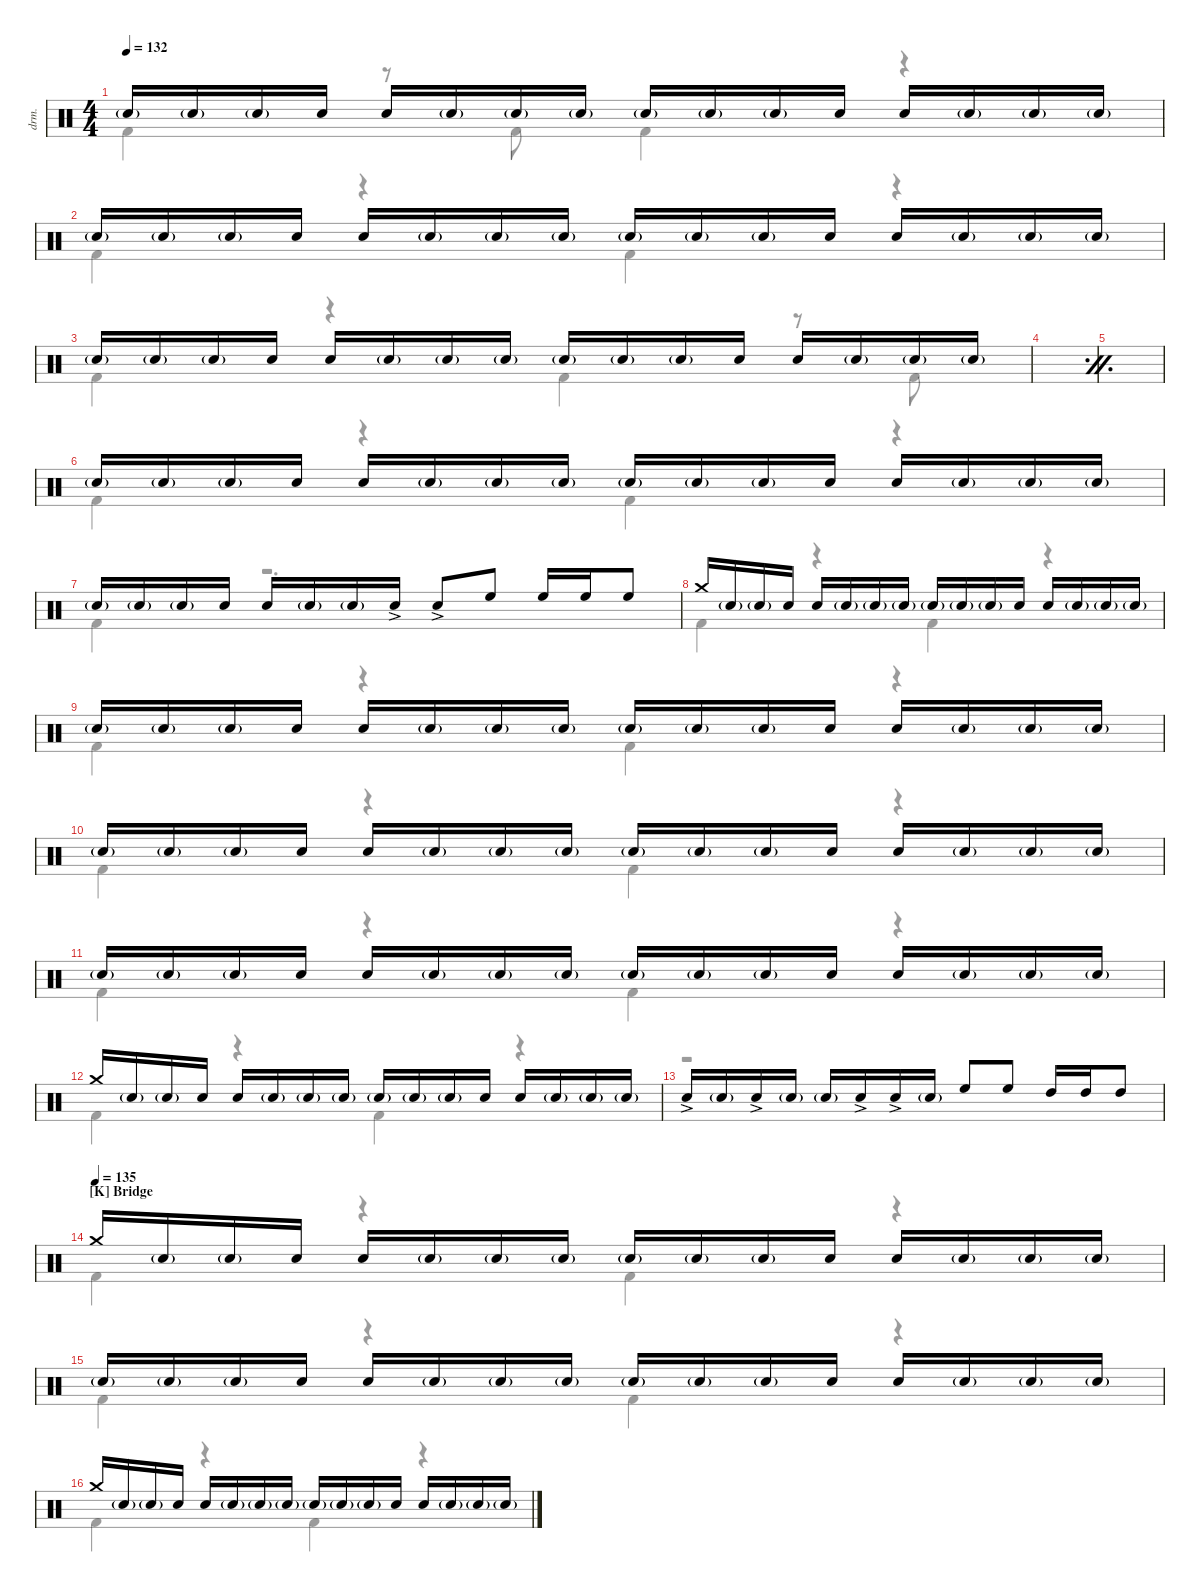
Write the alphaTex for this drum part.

\defaultSystemsLayout 4
\hideDynamics
\bracketExtendMode nobrackets
\track ("Drums" "drm.") {instrument percussion}
\staff {score}
\articulation defaults
\voice
\ts (4 4)
\tempo 132
\clef neutral
\ks c "Snare (hit) 2"{g}.16{dy mf} "Snare (hit) 2"{g}.16 "Snare (hit) 2"{g}.16 "Snare (hit) 2".16 "Snare (hit) 2".16 "Snare (hit) 2"{g}.16 "Snare (hit) 2"{g}.16 "Snare (hit) 2"{g}.16 "Snare (hit) 2"{g}.16 "Snare (hit) 2"{g}.16 "Snare (hit) 2"{g}.16 "Snare (hit) 2".16 "Snare (hit) 2".16 "Snare (hit) 2"{g}.16 "Snare (hit) 2"{g}.16 "Snare (hit) 2"{g}.16
|
"Snare (hit) 2"{g}.16 "Snare (hit) 2"{g}.16 "Snare (hit) 2"{g}.16 "Snare (hit) 2".16 "Snare (hit) 2".16 "Snare (hit) 2"{g}.16 "Snare (hit) 2"{g}.16 "Snare (hit) 2"{g}.16 "Snare (hit) 2"{g}.16 "Snare (hit) 2"{g}.16 "Snare (hit) 2"{g}.16 "Snare (hit) 2".16 "Snare (hit) 2".16 "Snare (hit) 2"{g}.16 "Snare (hit) 2"{g}.16 "Snare (hit) 2"{g}.16 |
"Snare (hit) 2"{g}.16 "Snare (hit) 2"{g}.16 "Snare (hit) 2"{g}.16 "Snare (hit) 2".16 "Snare (hit) 2".16 "Snare (hit) 2"{g}.16 "Snare (hit) 2"{g}.16 "Snare (hit) 2"{g}.16 "Snare (hit) 2"{g}.16 "Snare (hit) 2"{g}.16 "Snare (hit) 2"{g}.16 "Snare (hit) 2".16 "Snare (hit) 2".16 "Snare (hit) 2"{g}.16 "Snare (hit) 2"{g}.16 "Snare (hit) 2"{g}.16 |
\simile firstofdouble
|
\simile secondofdouble
|
\simile none "Snare (hit) 2"{g}.16 "Snare (hit) 2"{g}.16 "Snare (hit) 2"{g}.16 "Snare (hit) 2".16 "Snare (hit) 2".16 "Snare (hit) 2"{g}.16 "Snare (hit) 2"{g}.16 "Snare (hit) 2"{g}.16 "Snare (hit) 2"{g}.16 "Snare (hit) 2"{g}.16 "Snare (hit) 2"{g}.16 "Snare (hit) 2".16 "Snare (hit) 2".16 "Snare (hit) 2"{g}.16 "Snare (hit) 2"{g}.16 "Snare (hit) 2"{g}.16
|
"Snare (hit) 2"{g}.16 "Snare (hit) 2"{g}.16 "Snare (hit) 2"{g}.16 "Snare (hit) 2".16 "Snare (hit) 2".16 "Snare (hit) 2"{g}.16 "Snare (hit) 2"{g}.16 "Snare (hit) 2"{ac}.16 "Snare (hit) 2"{ac}.8 "High Floor Tom (hit)".8 "High Floor Tom (hit)".16 "High Floor Tom (hit)".16 "High Floor Tom (hit)".8 |
"Crash medium (hit)".16 "Snare (hit) 2"{g}.16 "Snare (hit) 2"{g}.16 "Snare (hit) 2".16 "Snare (hit) 2".16 "Snare (hit) 2"{g}.16 "Snare (hit) 2"{g}.16 "Snare (hit) 2"{g}.16 "Snare (hit) 2"{g}.16 "Snare (hit) 2"{g}.16 "Snare (hit) 2"{g}.16 "Snare (hit) 2".16 "Snare (hit) 2".16 "Snare (hit) 2"{g}.16 "Snare (hit) 2"{g}.16 "Snare (hit) 2"{g}.16 |
"Snare (hit) 2"{g}.16 "Snare (hit) 2"{g}.16 "Snare (hit) 2"{g}.16 "Snare (hit) 2".16 "Snare (hit) 2".16 "Snare (hit) 2"{g}.16 "Snare (hit) 2"{g}.16 "Snare (hit) 2"{g}.16 "Snare (hit) 2"{g}.16 "Snare (hit) 2"{g}.16 "Snare (hit) 2"{g}.16 "Snare (hit) 2".16 "Snare (hit) 2".16 "Snare (hit) 2"{g}.16 "Snare (hit) 2"{g}.16 "Snare (hit) 2"{g}.16 |
"Snare (hit) 2"{g}.16 "Snare (hit) 2"{g}.16 "Snare (hit) 2"{g}.16 "Snare (hit) 2".16 "Snare (hit) 2".16 "Snare (hit) 2"{g}.16 "Snare (hit) 2"{g}.16 "Snare (hit) 2"{g}.16 "Snare (hit) 2"{g}.16 "Snare (hit) 2"{g}.16 "Snare (hit) 2"{g}.16 "Snare (hit) 2".16 "Snare (hit) 2".16 "Snare (hit) 2"{g}.16 "Snare (hit) 2"{g}.16 "Snare (hit) 2"{g}.16 |
"Snare (hit) 2"{g}.16 "Snare (hit) 2"{g}.16 "Snare (hit) 2"{g}.16 "Snare (hit) 2".16 "Snare (hit) 2".16 "Snare (hit) 2"{g}.16 "Snare (hit) 2"{g}.16 "Snare (hit) 2"{g}.16 "Snare (hit) 2"{g}.16 "Snare (hit) 2"{g}.16 "Snare (hit) 2"{g}.16 "Snare (hit) 2".16 "Snare (hit) 2".16 "Snare (hit) 2"{g}.16 "Snare (hit) 2"{g}.16 "Snare (hit) 2"{g}.16 |
"Crash medium (hit)".16 "Snare (hit) 2"{g}.16 "Snare (hit) 2"{g}.16 "Snare (hit) 2".16 "Snare (hit) 2".16 "Snare (hit) 2"{g}.16 "Snare (hit) 2"{g}.16 "Snare (hit) 2"{g}.16 "Snare (hit) 2"{g}.16 "Snare (hit) 2"{g}.16 "Snare (hit) 2"{g}.16 "Snare (hit) 2".16 "Snare (hit) 2".16 "Snare (hit) 2"{g}.16 "Snare (hit) 2"{g}.16 "Snare (hit) 2"{g}.16 |
"Snare (hit) 2"{ac}.16 "Snare (hit) 2"{g}.16 "Snare (hit) 2"{ac}.16 "Snare (hit) 2"{g}.16 "Snare (hit) 2"{g}.16 "Snare (hit) 2"{ac}.16 "Snare (hit) 2"{ac}.16 "Snare (hit) 2"{g}.16 "High Floor Tom (hit)".8 "High Floor Tom (hit)".8 "High Tom (hit)".16 "High Tom (hit)".16 "High Tom (hit)".8 |
\section ("K" "Bridge")
\tempo (135)
"Crash medium (hit)".16 "Snare (hit) 2"{g}.16 "Snare (hit) 2"{g}.16 "Snare (hit) 2".16 "Snare (hit) 2".16 "Snare (hit) 2"{g}.16 "Snare (hit) 2"{g}.16 "Snare (hit) 2"{g}.16 "Snare (hit) 2"{g}.16 "Snare (hit) 2"{g}.16 "Snare (hit) 2"{g}.16 "Snare (hit) 2".16 "Snare (hit) 2".16 "Snare (hit) 2"{g}.16 "Snare (hit) 2"{g}.16 "Snare (hit) 2"{g}.16 |
"Snare (hit) 2"{g}.16 "Snare (hit) 2"{g}.16 "Snare (hit) 2"{g}.16 "Snare (hit) 2".16 "Snare (hit) 2".16 "Snare (hit) 2"{g}.16 "Snare (hit) 2"{g}.16 "Snare (hit) 2"{g}.16 "Snare (hit) 2"{g}.16 "Snare (hit) 2"{g}.16 "Snare (hit) 2"{g}.16 "Snare (hit) 2".16 "Snare (hit) 2".16 "Snare (hit) 2"{g}.16 "Snare (hit) 2"{g}.16 "Snare (hit) 2"{g}.16 |
"Crash medium (hit)".16 "Snare (hit) 2"{g}.16 "Snare (hit) 2"{g}.16 "Snare (hit) 2".16 "Snare (hit) 2".16 "Snare (hit) 2"{g}.16 "Snare (hit) 2"{g}.16 "Snare (hit) 2"{g}.16 "Snare (hit) 2"{g}.16 "Snare (hit) 2"{g}.16 "Snare (hit) 2"{g}.16 "Snare (hit) 2".16 "Snare (hit) 2".16 "Snare (hit) 2"{g}.16 "Snare (hit) 2"{g}.16 "Snare (hit) 2"{g}.16
\voice
\clef neutral
\ottava regular
\simile none
\ks c "Kick (hit) 2".4{dy mf}
r.8 "Kick (hit) 2".8 "Kick (hit) 2".4 r.4 |
"Kick (hit) 2".4 r.4 "Kick (hit) 2".4 r.4 |
"Kick (hit) 2".4 r.4 "Kick (hit) 2".4 r.8 "Kick (hit) 2".8 |
\simile firstofdouble
|
\simile secondofdouble
|
\simile none "Kick (hit) 2".4
r.4 "Kick (hit) 2".4 r.4 |
"Kick (hit) 2".4 r.2{d} |
"Kick (hit) 2".4 r.4 "Kick (hit) 2".4 r.4 |
"Kick (hit) 2".4 r.4 "Kick (hit) 2".4 r.4 |
"Kick (hit) 2".4 r.4 "Kick (hit) 2".4 r.4 |
"Kick (hit) 2".4 r.4 "Kick (hit) 2".4 r.4 |
"Kick (hit) 2".4 r.4 "Kick (hit) 2".4 r.4 |
r.1 |
"Kick (hit) 2".4 r.4 "Kick (hit) 2".4 r.4 |
"Kick (hit) 2".4 r.4 "Kick (hit) 2".4 r.4 |
"Kick (hit) 2".4 r.4 "Kick (hit) 2".4 r.4
